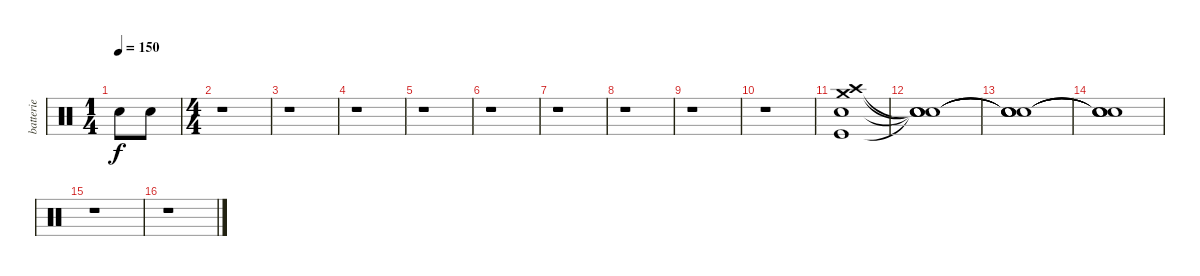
\track ("batterie" "batterie") {instrument percussion}
\staff {score}
\articulation defaults
\ts (1 4)
\tempo 150
\clef neutral
\ks c "Snare (hit) 2".8{dy f} "Snare (hit) 2".8
|
\ts (4 4)
r.1 |
r.1 |
r.1 |
r.1 |
r.1 |
r.1 |
r.1 |
r.1 |
r.1 |
("Crash high (hit)" "Crash medium (hit)" "Snare (hit) 2" "Kick (hit)").1 |
("Snare (hit)"{t} "Snare (hit)"{t} "Snare (hit)"{t} "Snare (hit)"{t}).1 |
("Snare (hit)"{t} "Snare (hit)"{t} "Snare (hit)"{t} "Snare (hit)"{t}).1 |
("Snare (hit)"{t} "Snare (hit)"{t} "Snare (hit)"{t} "Snare (hit)"{t}).1 |
r.1 |
r.1
